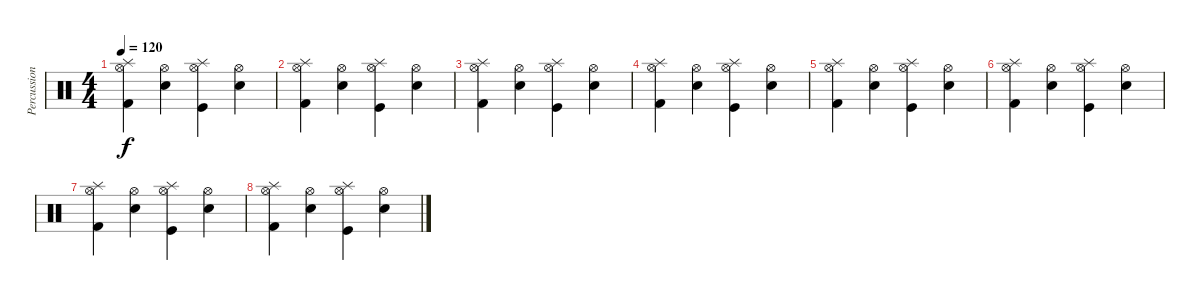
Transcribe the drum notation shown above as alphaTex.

\track ("Percussion" "Percussion") {instrument percussion}
\staff {score}
\articulation defaults
\ts (4 4)
\tempo 120
\clef neutral
\ks c
("Kick (hit) 2" "Hi-Hat (open)" "Splash (hit)").4{dy f} ("Snare (hit) 2" "Hi-Hat (open)").4 ("Kick (hit)" "Hi-Hat (open)" "Splash (hit)").4 ("Snare (hit) 2" "Hi-Hat (open)").4 |
("Kick (hit) 2" "Hi-Hat (open)" "Splash (hit)").4 ("Snare (hit) 2" "Hi-Hat (open)").4 ("Kick (hit)" "Hi-Hat (open)" "Splash (hit)").4 ("Snare (hit) 2" "Hi-Hat (open)").4 |
("Kick (hit) 2" "Hi-Hat (open)" "Splash (hit)").4 ("Snare (hit) 2" "Hi-Hat (open)").4 ("Kick (hit)" "Hi-Hat (open)" "Splash (hit)").4 ("Snare (hit) 2" "Hi-Hat (open)").4 |
("Kick (hit) 2" "Hi-Hat (open)" "Splash (hit)").4 ("Snare (hit) 2" "Hi-Hat (open)").4 ("Kick (hit)" "Hi-Hat (open)" "Splash (hit)").4 ("Snare (hit) 2" "Hi-Hat (open)").4 |
("Kick (hit) 2" "Hi-Hat (open)" "Splash (hit)").4 ("Snare (hit) 2" "Hi-Hat (open)").4 ("Kick (hit)" "Hi-Hat (open)" "Splash (hit)").4 ("Snare (hit) 2" "Hi-Hat (open)").4 |
("Kick (hit) 2" "Hi-Hat (open)" "Splash (hit)").4 ("Snare (hit) 2" "Hi-Hat (open)").4 ("Kick (hit)" "Hi-Hat (open)" "Splash (hit)").4 ("Snare (hit) 2" "Hi-Hat (open)").4 |
("Kick (hit) 2" "Hi-Hat (open)" "Splash (hit)").4 ("Snare (hit) 2" "Hi-Hat (open)").4 ("Kick (hit)" "Hi-Hat (open)" "Splash (hit)").4 ("Snare (hit) 2" "Hi-Hat (open)").4 |
("Kick (hit) 2" "Hi-Hat (open)" "Splash (hit)").4 ("Snare (hit) 2" "Hi-Hat (open)").4 ("Kick (hit)" "Hi-Hat (open)" "Splash (hit)").4 ("Snare (hit) 2" "Hi-Hat (open)").4
